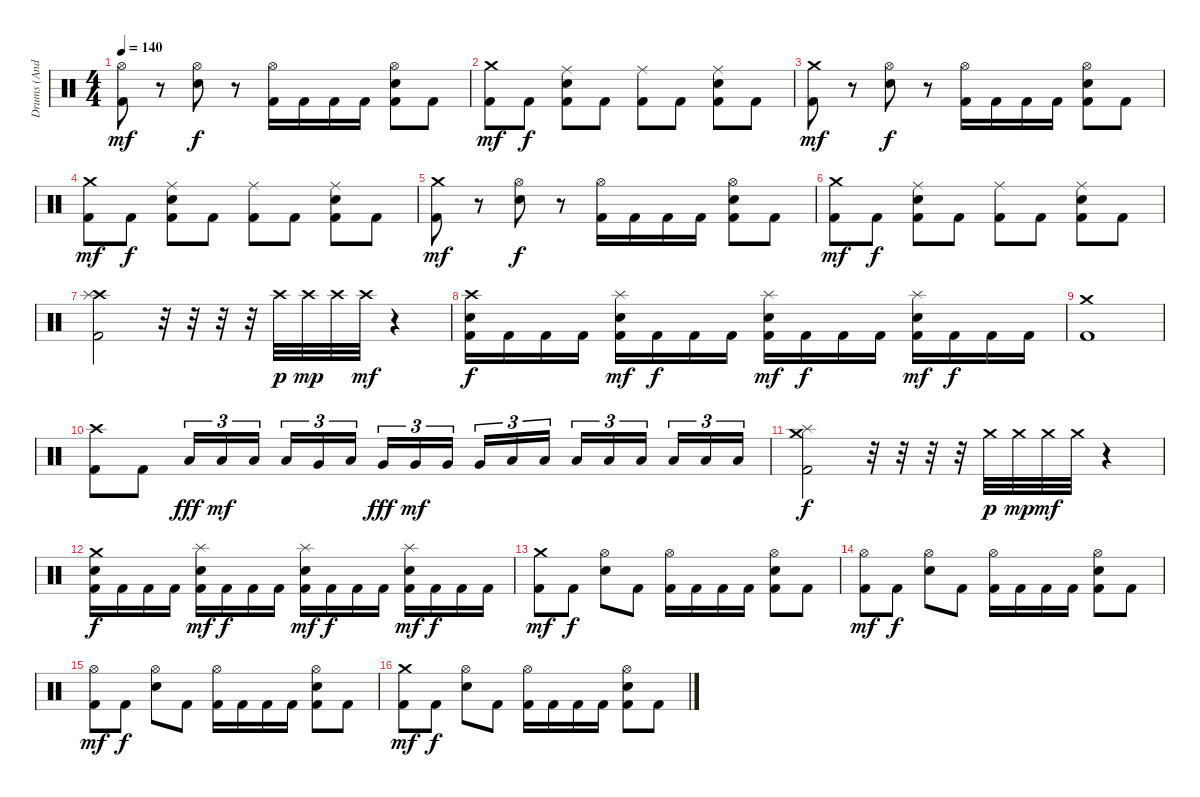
\track ("Drums (Andy C)" "Drums (And") {instrument percussion}
\staff {score}
\articulation defaults
\ts (4 4)
\tempo 140
\clef neutral
\ks c
("Hi-Hat (open)" "Kick (hit) 2").8{dy mf} r.8 ("Hi-Hat (open)" "Electric Snare (hit)").8{dy f} r.8 ("Hi-Hat (open)" "Kick (hit) 2").16 "Kick (hit) 2".16 "Kick (hit) 2".16 "Kick (hit) 2".16 ("Hi-Hat (open)" "Kick (hit) 2" "Electric Snare (hit)").8 "Kick (hit) 2".8 |
("Crash medium (hit)" "Kick (hit) 2").8{dy mf} "Kick (hit) 2".8{dy f} ("Ride (middle)" "Kick (hit) 2" "Electric Snare (hit)").8 "Kick (hit) 2".8 ("Ride (middle)" "Kick (hit) 2").8 "Kick (hit) 2".8 ("Ride (middle)" "Kick (hit) 2" "Electric Snare (hit)").8 "Kick (hit) 2".8 |
("Crash medium (hit)" "Kick (hit) 2").8{dy mf} r.8 ("Hi-Hat (open)" "Electric Snare (hit)").8{dy f} r.8 ("Hi-Hat (open)" "Kick (hit) 2").16 "Kick (hit) 2".16 "Kick (hit) 2".16 "Kick (hit) 2".16 ("Hi-Hat (open)" "Kick (hit) 2" "Electric Snare (hit)").8 "Kick (hit) 2".8 |
("Crash medium (hit)" "Kick (hit) 2").8{dy mf} "Kick (hit) 2".8{dy f} ("Ride (middle)" "Kick (hit) 2" "Electric Snare (hit)").8 "Kick (hit) 2".8 ("Ride (middle)" "Kick (hit) 2").8 "Kick (hit) 2".8 ("Ride (middle)" "Kick (hit) 2" "Electric Snare (hit)").8 "Kick (hit) 2".8 |
("Crash medium (hit)" "Kick (hit) 2").8{dy mf} r.8 ("Hi-Hat (open)" "Electric Snare (hit)").8{dy f} r.8 ("Hi-Hat (open)" "Kick (hit) 2").16 "Kick (hit) 2".16 "Kick (hit) 2".16 "Kick (hit) 2".16 ("Hi-Hat (open)" "Kick (hit) 2" "Electric Snare (hit)").8 "Kick (hit) 2".8 |
("Crash medium (hit)" "Kick (hit) 2").8{dy mf} "Kick (hit) 2".8{dy f} ("Ride (middle)" "Kick (hit) 2" "Electric Snare (hit)").8 "Kick (hit) 2".8 ("Ride (middle)" "Kick (hit) 2").8 "Kick (hit) 2".8 ("Ride (middle)" "Kick (hit) 2" "Electric Snare (hit)").8 "Kick (hit) 2".8 |
("Crash high (hit)" "Splash (hit)" "Kick (hit) 2").2 r.32 r.32 r.32 r.32 "Crash high (hit)".32{dy p} "Crash high (hit)".32{dy mp} "Crash high (hit)".32 "Crash high (hit)".32{dy mf} r.4 |
("Crash high (hit)" "Kick (hit) 2" "Electric Snare (hit)").16{dy f} "Kick (hit) 2".16 "Kick (hit) 2".16 "Kick (hit) 2".16 ("Splash (hit)" "Kick (hit) 2" "Electric Snare (hit)").16{dy mf} "Kick (hit) 2".16{dy f} "Kick (hit) 2".16 "Kick (hit) 2".16 ("Splash (hit)" "Kick (hit) 2" "Electric Snare (hit)").16{dy mf} "Kick (hit) 2".16{dy f} "Kick (hit) 2".16 "Kick (hit) 2".16 ("Splash (hit)" "Kick (hit) 2" "Electric Snare (hit)").16{dy mf} "Kick (hit) 2".16{dy f} "Kick (hit) 2".16 "Kick (hit) 2".16 |
("Crash medium (hit)" "Kick (hit) 2").1 |
("Crash high (hit)" "Kick (hit) 2").8 "Kick (hit) 2".8 "Low Tom (hit)".16{tu (3 2) dy fff} "Low Tom (hit)".16{tu (3 2) dy mf} "Low Tom (hit)".16{tu (3 2)} "Low Tom (hit)".16{tu (3 2)} "Very Low Tom (hit)".16{tu (3 2)} "Low Floor Tom (hit)".16{tu (3 2)} "Very Low Tom (hit)".16{tu (3 2) dy fff} "Very Low Tom (hit)".16{tu (3 2) dy mf} "Very Low Tom (hit)".16{tu (3 2)} "Very Low Tom (hit)".16{tu (3 2)} "Low Floor Tom (hit)".16{tu (3 2)} "Low Floor Tom (hit)".16{tu (3 2)} "Low Floor Tom (hit)".16{tu (3 2)} "Low Floor Tom (hit)".16{tu (3 2)} "Low Floor Tom (hit)".16{tu (3 2)} "Low Floor Tom (hit)".16{tu (3 2)} "Low Floor Tom (hit)".16{tu (3 2)} "Low Floor Tom (hit)".16{tu (3 2)} |
("Crash medium (hit)" "Splash (hit)" "Kick (hit) 2").2{dy f} r.32 r.32 r.32 r.32 "Crash medium (hit)".32{dy p} "Crash medium (hit)".32{dy mp} "Crash medium (hit)".32{dy mf} "Crash medium (hit)".32 r.4 |
("Crash medium (hit)" "Kick (hit) 2" "Electric Snare (hit)").16{dy f} "Kick (hit) 2".16 "Kick (hit) 2".16 "Kick (hit) 2".16 ("Splash (hit)" "Kick (hit) 2" "Electric Snare (hit)").16{dy mf} "Kick (hit) 2".16{dy f} "Kick (hit) 2".16 "Kick (hit) 2".16 ("Splash (hit)" "Kick (hit) 2" "Electric Snare (hit)").16{dy mf} "Kick (hit) 2".16{dy f} "Kick (hit) 2".16 "Kick (hit) 2".16 ("Splash (hit)" "Kick (hit) 2" "Electric Snare (hit)").16{dy mf} "Kick (hit) 2".16{dy f} "Kick (hit) 2".16 "Kick (hit) 2".16 |
("Crash medium (hit)" "Kick (hit) 2").8{dy mf} "Kick (hit) 2".8{dy f} ("Hi-Hat (open)" "Electric Snare (hit)").8 "Kick (hit) 2".8 ("Hi-Hat (open)" "Kick (hit) 2").16 "Kick (hit) 2".16 "Kick (hit) 2".16 "Kick (hit) 2".16 ("Hi-Hat (open)" "Kick (hit) 2" "Electric Snare (hit)").8 "Kick (hit) 2".8 |
("Hi-Hat (open)" "Kick (hit) 2").8{dy mf} "Kick (hit) 2".8{dy f} ("Hi-Hat (open)" "Electric Snare (hit)").8 "Kick (hit) 2".8 ("Hi-Hat (open)" "Kick (hit) 2").16 "Kick (hit) 2".16 "Kick (hit) 2".16 "Kick (hit) 2".16 ("Hi-Hat (open)" "Kick (hit) 2" "Electric Snare (hit)").8 "Kick (hit) 2".8 |
("Hi-Hat (open)" "Kick (hit) 2").8{dy mf} "Kick (hit) 2".8{dy f} ("Hi-Hat (open)" "Electric Snare (hit)").8 "Kick (hit) 2".8 ("Hi-Hat (open)" "Kick (hit) 2").16 "Kick (hit) 2".16 "Kick (hit) 2".16 "Kick (hit) 2".16 ("Hi-Hat (open)" "Kick (hit) 2" "Electric Snare (hit)").8 "Kick (hit) 2".8 |
("Crash medium (hit)" "Kick (hit) 2").8{dy mf} "Kick (hit) 2".8{dy f} ("Hi-Hat (open)" "Electric Snare (hit)").8 "Kick (hit) 2".8 ("Hi-Hat (open)" "Kick (hit) 2").16 "Kick (hit) 2".16 "Kick (hit) 2".16 "Kick (hit) 2".16 ("Hi-Hat (open)" "Kick (hit) 2" "Electric Snare (hit)").8 "Kick (hit) 2".8
